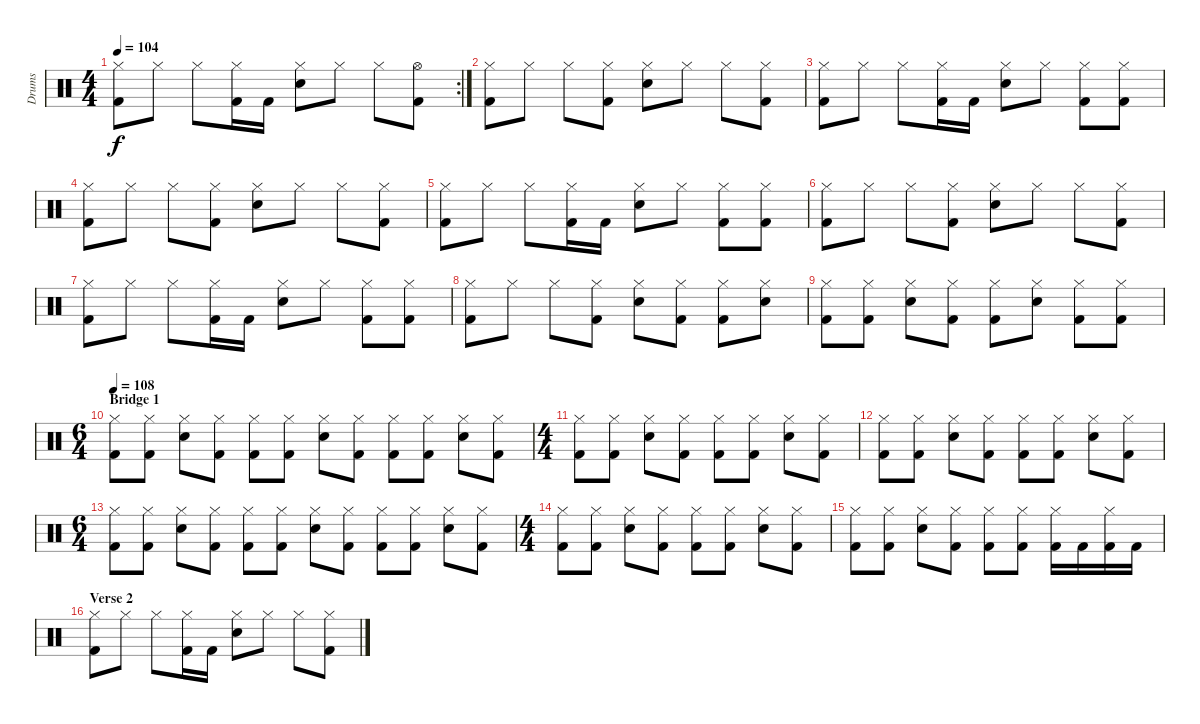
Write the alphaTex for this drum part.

\track ("Drums" "Drums") {instrument percussion}
\staff {score}
\articulation defaults
\rc 2
\ts (4 4)
\tempo 104
\clef neutral
\ks c
("Hi-Hat (closed)" "Kick (hit) 2").8{dy f} "Hi-Hat (closed)".8 "Hi-Hat (closed)".8 ("Hi-Hat (closed)" "Kick (hit) 2").16 "Kick (hit) 2".16 ("Hi-Hat (closed)" "Snare (hit) 2").8 "Hi-Hat (closed)".8 "Hi-Hat (closed)".8 ("Hi-Hat (open)" "Kick (hit) 2").8 |
("Hi-Hat (closed)" "Kick (hit) 2").8 "Hi-Hat (closed)".8 "Hi-Hat (closed)".8 ("Hi-Hat (closed)" "Kick (hit) 2").8 ("Hi-Hat (closed)" "Snare (hit) 2").8 "Hi-Hat (closed)".8 "Hi-Hat (closed)".8 ("Hi-Hat (closed)" "Kick (hit) 2").8 |
("Hi-Hat (closed)" "Kick (hit) 2").8 "Hi-Hat (closed)".8 "Hi-Hat (closed)".8 ("Hi-Hat (closed)" "Kick (hit) 2").16 "Kick (hit) 2".16 ("Hi-Hat (closed)" "Snare (hit) 2").8 "Hi-Hat (closed)".8 ("Hi-Hat (closed)" "Kick (hit) 2").8 ("Hi-Hat (closed)" "Kick (hit) 2").8 |
("Hi-Hat (closed)" "Kick (hit) 2").8 "Hi-Hat (closed)".8 "Hi-Hat (closed)".8 ("Hi-Hat (closed)" "Kick (hit) 2").8 ("Hi-Hat (closed)" "Snare (hit) 2").8 "Hi-Hat (closed)".8 "Hi-Hat (closed)".8 ("Hi-Hat (closed)" "Kick (hit) 2").8 |
("Hi-Hat (closed)" "Kick (hit) 2").8 "Hi-Hat (closed)".8 "Hi-Hat (closed)".8 ("Hi-Hat (closed)" "Kick (hit) 2").16 "Kick (hit) 2".16 ("Hi-Hat (closed)" "Snare (hit) 2").8 "Hi-Hat (closed)".8 ("Hi-Hat (closed)" "Kick (hit) 2").8 ("Hi-Hat (closed)" "Kick (hit) 2").8 |
("Hi-Hat (closed)" "Kick (hit) 2").8 "Hi-Hat (closed)".8 "Hi-Hat (closed)".8 ("Hi-Hat (closed)" "Kick (hit) 2").8 ("Hi-Hat (closed)" "Snare (hit) 2").8 "Hi-Hat (closed)".8 "Hi-Hat (closed)".8 ("Hi-Hat (closed)" "Kick (hit) 2").8 |
("Hi-Hat (closed)" "Kick (hit) 2").8 "Hi-Hat (closed)".8 "Hi-Hat (closed)".8 ("Hi-Hat (closed)" "Kick (hit) 2").16 "Kick (hit) 2".16 ("Hi-Hat (closed)" "Snare (hit) 2").8 "Hi-Hat (closed)".8 ("Hi-Hat (closed)" "Kick (hit) 2").8 ("Hi-Hat (closed)" "Kick (hit) 2").8 |
("Hi-Hat (closed)" "Kick (hit) 2").8 "Hi-Hat (closed)".8 "Hi-Hat (closed)".8 ("Hi-Hat (closed)" "Kick (hit) 2").8 ("Hi-Hat (closed)" "Snare (hit) 2").8 ("Hi-Hat (closed)" "Kick (hit) 2").8 ("Hi-Hat (closed)" "Kick (hit) 2").8 ("Hi-Hat (closed)" "Snare (hit) 2").8 |
("Hi-Hat (closed)" "Kick (hit) 2").8 ("Hi-Hat (closed)" "Kick (hit) 2").8 ("Hi-Hat (closed)" "Snare (hit) 2").8 ("Hi-Hat (closed)" "Kick (hit) 2").8 ("Hi-Hat (closed)" "Kick (hit) 2").8 ("Hi-Hat (closed)" "Snare (hit) 2").8 ("Hi-Hat (closed)" "Kick (hit) 2").8 ("Hi-Hat (closed)" "Kick (hit) 2").8 |
\ts (6 4)
\section ("" "Bridge 1")
\tempo 108
("Hi-Hat (closed)" "Kick (hit) 2").8 ("Hi-Hat (closed)" "Kick (hit) 2").8 ("Hi-Hat (closed)" "Snare (hit) 2").8 ("Hi-Hat (closed)" "Kick (hit) 2").8 ("Hi-Hat (closed)" "Kick (hit) 2").8 ("Hi-Hat (closed)" "Kick (hit) 2").8 ("Hi-Hat (closed)" "Snare (hit) 2").8 ("Hi-Hat (closed)" "Kick (hit) 2").8 ("Hi-Hat (closed)" "Kick (hit) 2").8 ("Hi-Hat (closed)" "Kick (hit) 2").8 ("Hi-Hat (closed)" "Snare (hit) 2").8 ("Hi-Hat (closed)" "Kick (hit) 2").8 |
\ts (4 4)
("Hi-Hat (closed)" "Kick (hit) 2").8 ("Hi-Hat (closed)" "Kick (hit) 2").8 ("Hi-Hat (closed)" "Snare (hit) 2").8 ("Hi-Hat (closed)" "Kick (hit) 2").8 ("Hi-Hat (closed)" "Kick (hit) 2").8 ("Hi-Hat (closed)" "Kick (hit) 2").8 ("Hi-Hat (closed)" "Snare (hit) 2").8 ("Hi-Hat (closed)" "Kick (hit) 2").8 |
("Hi-Hat (closed)" "Kick (hit) 2").8 ("Hi-Hat (closed)" "Kick (hit) 2").8 ("Hi-Hat (closed)" "Snare (hit) 2").8 ("Hi-Hat (closed)" "Kick (hit) 2").8 ("Hi-Hat (closed)" "Kick (hit) 2").8 ("Hi-Hat (closed)" "Kick (hit) 2").8 ("Hi-Hat (closed)" "Snare (hit) 2").8 ("Hi-Hat (closed)" "Kick (hit) 2").8 |
\ts (6 4)
("Hi-Hat (closed)" "Kick (hit) 2").8 ("Hi-Hat (closed)" "Kick (hit) 2").8 ("Hi-Hat (closed)" "Snare (hit) 2").8 ("Hi-Hat (closed)" "Kick (hit) 2").8 ("Hi-Hat (closed)" "Kick (hit) 2").8 ("Hi-Hat (closed)" "Kick (hit) 2").8 ("Hi-Hat (closed)" "Snare (hit) 2").8 ("Hi-Hat (closed)" "Kick (hit) 2").8 ("Hi-Hat (closed)" "Kick (hit) 2").8 ("Hi-Hat (closed)" "Kick (hit) 2").8 ("Hi-Hat (closed)" "Snare (hit) 2").8 ("Hi-Hat (closed)" "Kick (hit) 2").8 |
\ts (4 4)
("Hi-Hat (closed)" "Kick (hit) 2").8 ("Hi-Hat (closed)" "Kick (hit) 2").8 ("Hi-Hat (closed)" "Snare (hit) 2").8 ("Hi-Hat (closed)" "Kick (hit) 2").8 ("Hi-Hat (closed)" "Kick (hit) 2").8 ("Hi-Hat (closed)" "Kick (hit) 2").8 ("Hi-Hat (closed)" "Snare (hit) 2").8 ("Hi-Hat (closed)" "Kick (hit) 2").8 |
("Hi-Hat (closed)" "Kick (hit) 2").8 ("Hi-Hat (closed)" "Kick (hit) 2").8 ("Hi-Hat (closed)" "Snare (hit) 2").8 ("Hi-Hat (closed)" "Kick (hit) 2").8 ("Hi-Hat (closed)" "Kick (hit) 2").8 ("Hi-Hat (closed)" "Kick (hit) 2").8 ("Hi-Hat (closed)" "Kick (hit) 2").16 "Kick (hit) 2".16 ("Hi-Hat (closed)" "Kick (hit) 2").16 "Kick (hit) 2".16 |
\section ("" "Verse 2")
("Hi-Hat (closed)" "Kick (hit) 2").8 "Hi-Hat (closed)".8 "Hi-Hat (closed)".8 ("Hi-Hat (closed)" "Kick (hit) 2").16 "Kick (hit) 2".16 ("Hi-Hat (closed)" "Snare (hit) 2").8 "Hi-Hat (closed)".8 "Hi-Hat (closed)".8 ("Hi-Hat (closed)" "Kick (hit) 2").8
